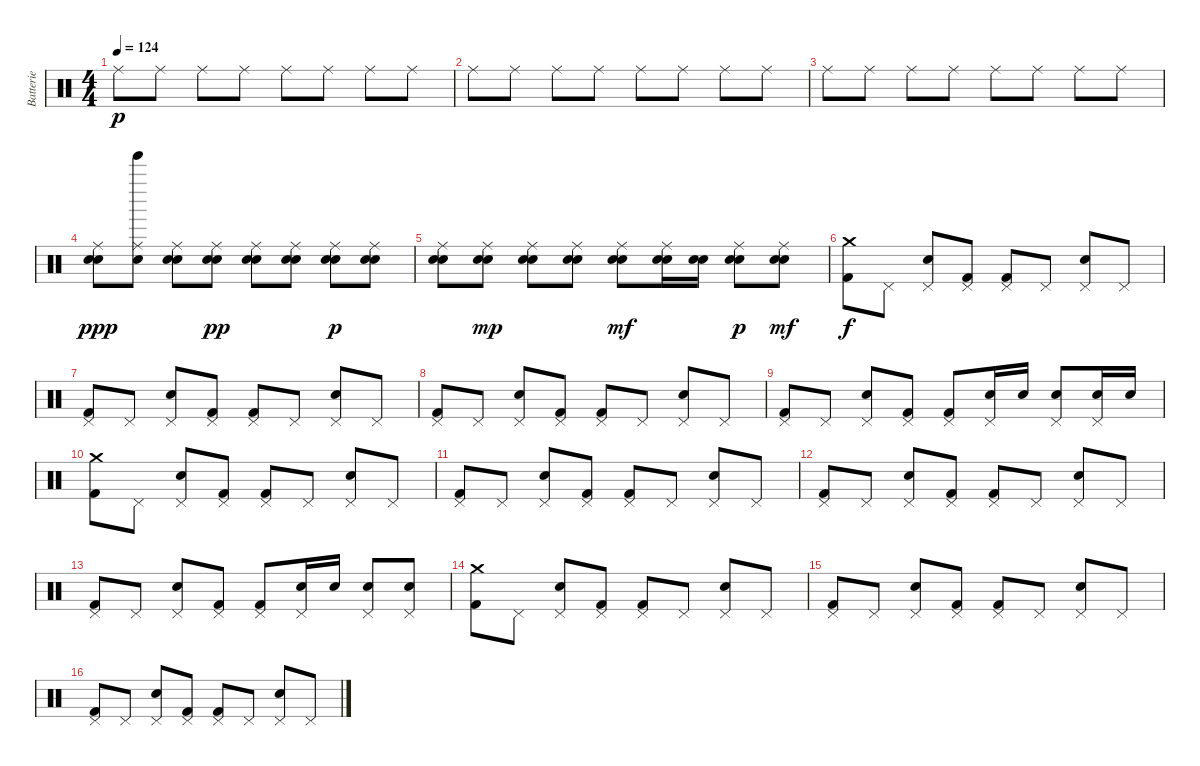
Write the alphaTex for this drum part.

\track ("Batterie" "Batterie") {instrument percussion}
\staff {score}
\articulation defaults
\ts (4 4)
\tempo 124
\clef neutral
\ks c "Ride (middle)".8{dy p} "Ride (middle)".8 "Ride (middle)".8 "Ride (middle)".8 "Ride (middle)".8 "Ride (middle)".8 "Ride (middle)".8 "Ride (middle)".8
|
"Ride (middle)".8 "Ride (middle)".8 "Ride (middle)".8 "Ride (middle)".8 "Ride (middle)".8 "Ride (middle)".8 "Ride (middle)".8 "Ride (middle)".8 |
"Ride (middle)".8 "Ride (middle)".8 "Ride (middle)".8 "Ride (middle)".8 "Ride (middle)".8 "Ride (middle)".8 "Ride (middle)".8 "Ride (middle)".8 |
("Ride (middle)" "Electric Snare (hit)" "Snare (hit) 2").8{dy ppp} ("Ride (middle)" "Electric Snare (hit)" "Tinkle Bell (hit)").8 ("Ride (middle)" "Electric Snare (hit)" "Snare (hit) 2").8 ("Ride (middle)" "Electric Snare (hit)" "Snare (hit) 2").8{dy pp} ("Ride (middle)" "Electric Snare (hit)" "Snare (hit) 2").8 ("Ride (middle)" "Electric Snare (hit)" "Snare (hit) 2").8 ("Ride (middle)" "Electric Snare (hit)" "Snare (hit) 2").8{dy p} ("Ride (middle)" "Electric Snare (hit)" "Snare (hit) 2").8 |
("Ride (middle)" "Electric Snare (hit)" "Snare (hit) 2").8 ("Ride (middle)" "Electric Snare (hit)" "Snare (hit) 2").8{dy mp} ("Ride (middle)" "Electric Snare (hit)" "Snare (hit) 2").8 ("Ride (middle)" "Electric Snare (hit)" "Snare (hit) 2").8 ("Ride (middle)" "Electric Snare (hit)" "Snare (hit) 2").8{dy mf} ("Ride (middle)" "Electric Snare (hit)" "Snare (hit) 2").16 ("Electric Snare (hit)" "Snare (hit) 2").16 ("Ride (middle)" "Electric Snare (hit)" "Snare (hit) 2").8{dy p} ("Ride (middle)" "Electric Snare (hit)" "Snare (hit) 2").8{dy mf} |
("Crash medium (hit)" "Kick (hit) 2").8{dy f} "Pedal Hi-Hat (hit)".8 ("Pedal Hi-Hat (hit)" "Electric Snare (hit)").8 ("Pedal Hi-Hat (hit)" "Kick (hit) 2").8 ("Pedal Hi-Hat (hit)" "Kick (hit) 2").8 "Pedal Hi-Hat (hit)".8 ("Pedal Hi-Hat (hit)" "Electric Snare (hit)").8 "Pedal Hi-Hat (hit)".8 |
("Pedal Hi-Hat (hit)" "Kick (hit) 2").8 "Pedal Hi-Hat (hit)".8 ("Pedal Hi-Hat (hit)" "Electric Snare (hit)").8 ("Pedal Hi-Hat (hit)" "Kick (hit) 2").8 ("Pedal Hi-Hat (hit)" "Kick (hit) 2").8 "Pedal Hi-Hat (hit)".8 ("Pedal Hi-Hat (hit)" "Electric Snare (hit)").8 "Pedal Hi-Hat (hit)".8 |
("Pedal Hi-Hat (hit)" "Kick (hit) 2").8 "Pedal Hi-Hat (hit)".8 ("Pedal Hi-Hat (hit)" "Electric Snare (hit)").8 ("Pedal Hi-Hat (hit)" "Kick (hit) 2").8 ("Pedal Hi-Hat (hit)" "Kick (hit) 2").8 "Pedal Hi-Hat (hit)".8 ("Pedal Hi-Hat (hit)" "Electric Snare (hit)").8 "Pedal Hi-Hat (hit)".8 |
("Pedal Hi-Hat (hit)" "Kick (hit) 2").8 "Pedal Hi-Hat (hit)".8 ("Pedal Hi-Hat (hit)" "Electric Snare (hit)").8 ("Pedal Hi-Hat (hit)" "Kick (hit) 2").8 ("Pedal Hi-Hat (hit)" "Kick (hit) 2").8 ("Pedal Hi-Hat (hit)" "Electric Snare (hit)").16 "Electric Snare (hit)".16 ("Pedal Hi-Hat (hit)" "Electric Snare (hit)").8 ("Pedal Hi-Hat (hit)" "Electric Snare (hit)").16 "Electric Snare (hit)".16 |
("Crash medium (hit)" "Kick (hit) 2").8 "Pedal Hi-Hat (hit)".8 ("Pedal Hi-Hat (hit)" "Electric Snare (hit)").8 ("Pedal Hi-Hat (hit)" "Kick (hit) 2").8 ("Pedal Hi-Hat (hit)" "Kick (hit) 2").8 "Pedal Hi-Hat (hit)".8 ("Pedal Hi-Hat (hit)" "Electric Snare (hit)").8 "Pedal Hi-Hat (hit)".8 |
("Pedal Hi-Hat (hit)" "Kick (hit) 2").8 "Pedal Hi-Hat (hit)".8 ("Pedal Hi-Hat (hit)" "Electric Snare (hit)").8 ("Pedal Hi-Hat (hit)" "Kick (hit) 2").8 ("Pedal Hi-Hat (hit)" "Kick (hit) 2").8 "Pedal Hi-Hat (hit)".8 ("Pedal Hi-Hat (hit)" "Electric Snare (hit)").8 "Pedal Hi-Hat (hit)".8 |
("Pedal Hi-Hat (hit)" "Kick (hit) 2").8 "Pedal Hi-Hat (hit)".8 ("Pedal Hi-Hat (hit)" "Electric Snare (hit)").8 ("Pedal Hi-Hat (hit)" "Kick (hit) 2").8 ("Pedal Hi-Hat (hit)" "Kick (hit) 2").8 "Pedal Hi-Hat (hit)".8 ("Pedal Hi-Hat (hit)" "Electric Snare (hit)").8 "Pedal Hi-Hat (hit)".8 |
("Pedal Hi-Hat (hit)" "Kick (hit) 2").8 "Pedal Hi-Hat (hit)".8 ("Pedal Hi-Hat (hit)" "Electric Snare (hit)").8 ("Pedal Hi-Hat (hit)" "Kick (hit) 2").8 ("Pedal Hi-Hat (hit)" "Kick (hit) 2").8 ("Pedal Hi-Hat (hit)" "Electric Snare (hit)").16 "Electric Snare (hit)".16 ("Pedal Hi-Hat (hit)" "Electric Snare (hit)").8 ("Pedal Hi-Hat (hit)" "Electric Snare (hit)").8 |
("Crash medium (hit)" "Kick (hit) 2").8 "Pedal Hi-Hat (hit)".8 ("Pedal Hi-Hat (hit)" "Electric Snare (hit)").8 ("Pedal Hi-Hat (hit)" "Kick (hit) 2").8 ("Pedal Hi-Hat (hit)" "Kick (hit) 2").8 "Pedal Hi-Hat (hit)".8 ("Pedal Hi-Hat (hit)" "Electric Snare (hit)").8 "Pedal Hi-Hat (hit)".8 |
("Pedal Hi-Hat (hit)" "Kick (hit) 2").8 "Pedal Hi-Hat (hit)".8 ("Pedal Hi-Hat (hit)" "Electric Snare (hit)").8 ("Pedal Hi-Hat (hit)" "Kick (hit) 2").8 ("Pedal Hi-Hat (hit)" "Kick (hit) 2").8 "Pedal Hi-Hat (hit)".8 ("Pedal Hi-Hat (hit)" "Electric Snare (hit)").8 "Pedal Hi-Hat (hit)".8 |
("Pedal Hi-Hat (hit)" "Kick (hit) 2").8 "Pedal Hi-Hat (hit)".8 ("Pedal Hi-Hat (hit)" "Electric Snare (hit)").8 ("Pedal Hi-Hat (hit)" "Kick (hit) 2").8 ("Pedal Hi-Hat (hit)" "Kick (hit) 2").8 "Pedal Hi-Hat (hit)".8 ("Pedal Hi-Hat (hit)" "Electric Snare (hit)").8 "Pedal Hi-Hat (hit)".8
